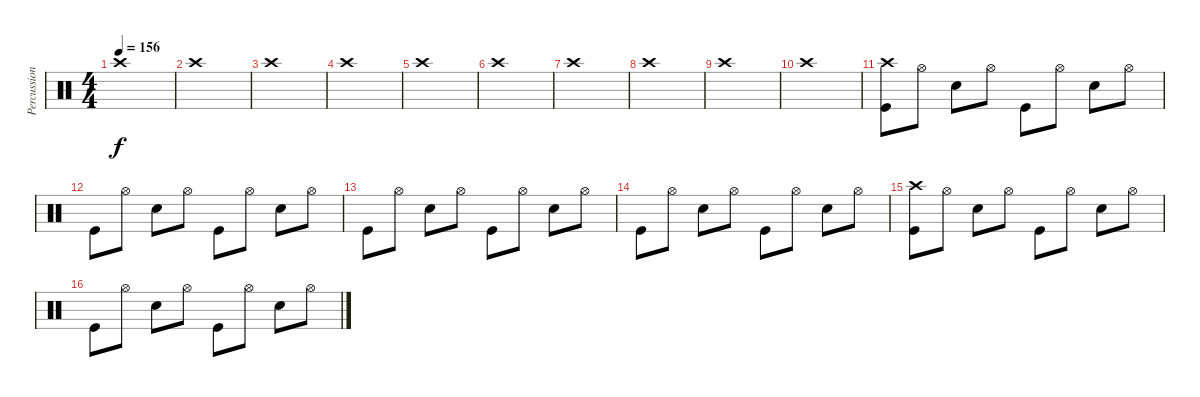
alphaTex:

\track ("Percussion" "Percussion") {instrument percussion}
\staff {score}
\articulation defaults
\ts (4 4)
\tempo 156
\clef neutral
\ks c "Crash high (hit)".1{dy f}
|
"Crash high (hit)".1 |
"Crash high (hit)".1 |
"Crash high (hit)".1 |
"Crash high (hit)".1 |
"Crash high (hit)".1 |
"Crash high (hit)".1 |
"Crash high (hit)".1 |
"Crash high (hit)".1 |
"Crash high (hit)".1 |
("Crash high (hit)" "Kick (hit)").8 "Hi-Hat (open)".8 "Electric Snare (hit)".8 "Hi-Hat (open)".8 "Kick (hit)".8 "Hi-Hat (open)".8 "Electric Snare (hit)".8 "Hi-Hat (open)".8 |
"Kick (hit)".8 "Hi-Hat (open)".8 "Electric Snare (hit)".8 "Hi-Hat (open)".8 "Kick (hit)".8 "Hi-Hat (open)".8 "Electric Snare (hit)".8 "Hi-Hat (open)".8 |
"Kick (hit)".8 "Hi-Hat (open)".8 "Electric Snare (hit)".8 "Hi-Hat (open)".8 "Kick (hit)".8 "Hi-Hat (open)".8 "Electric Snare (hit)".8 "Hi-Hat (open)".8 |
"Kick (hit)".8 "Hi-Hat (open)".8 "Electric Snare (hit)".8 "Hi-Hat (open)".8 "Kick (hit)".8 "Hi-Hat (open)".8 "Electric Snare (hit)".8 "Hi-Hat (open)".8 |
("Crash high (hit)" "Kick (hit)").8 "Hi-Hat (open)".8 "Electric Snare (hit)".8 "Hi-Hat (open)".8 "Kick (hit)".8 "Hi-Hat (open)".8 "Electric Snare (hit)".8 "Hi-Hat (open)".8 |
"Kick (hit)".8 "Hi-Hat (open)".8 "Electric Snare (hit)".8 "Hi-Hat (open)".8 "Kick (hit)".8 "Hi-Hat (open)".8 "Electric Snare (hit)".8 "Hi-Hat (open)".8
